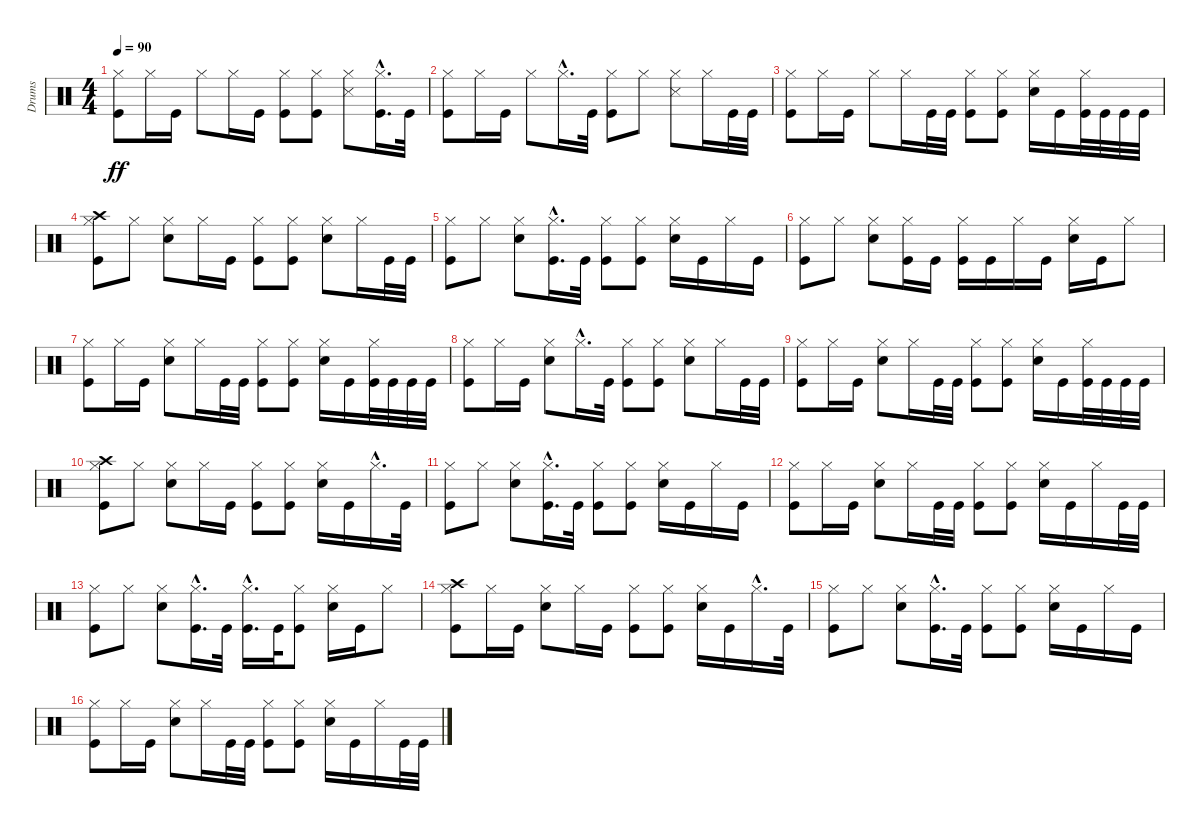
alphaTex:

\track ("Drums" "Drums") {instrument percussion}
\staff {score}
\articulation defaults
\ts (4 4)
\tempo 90
\clef neutral
\ks c
("Kick (hit)" "Hi-Hat (closed)").8{dy ff} "Hi-Hat (closed)".16 "Kick (hit)".16 "Hi-Hat (closed)".8 "Hi-Hat (closed)".16 "Kick (hit)".16 ("Kick (hit)" "Hi-Hat (closed)").8 ("Kick (hit)" "Hi-Hat (closed)").8 ("Snare (side stick) 3" "Hi-Hat (closed)").8 ("Kick (hit)"{hac} "Hi-Hat (closed)"{hac}).16{d} "Kick (hit)".32 |
("Kick (hit)" "Hi-Hat (closed)").8 "Hi-Hat (closed)".16 "Kick (hit)".16 "Hi-Hat (closed)".8 "Hi-Hat (closed)"{hac}.16{d} "Kick (hit)".32 ("Kick (hit)" "Hi-Hat (closed)").8 "Hi-Hat (closed)".8 ("Snare (side stick) 3" "Hi-Hat (closed)").8 "Hi-Hat (closed)".16 "Kick (hit)".32 "Kick (hit)".32 |
("Kick (hit)" "Hi-Hat (closed)").8 "Hi-Hat (closed)".16 "Kick (hit)".16 "Hi-Hat (closed)".8 "Hi-Hat (closed)".16 "Kick (hit)".32 "Kick (hit)".32 ("Kick (hit)" "Hi-Hat (closed)").8 ("Kick (hit)" "Hi-Hat (closed)").8 ("Electric Snare (hit)" "Hi-Hat (closed)").16 "Kick (hit)".16 ("Kick (hit)" "Hi-Hat (closed)").32 "Kick (hit)".32 "Kick (hit)".32 "Kick (hit)".32 |
("Kick (hit)" "Hi-Hat (closed)" "Crash high (hit)").8 "Hi-Hat (closed)".8 ("Electric Snare (hit)" "Hi-Hat (closed)").8 "Hi-Hat (closed)".16 "Kick (hit)".16 ("Kick (hit)" "Hi-Hat (closed)").8 ("Kick (hit)" "Hi-Hat (closed)").8 ("Electric Snare (hit)" "Hi-Hat (closed)").8 "Hi-Hat (closed)".16 "Kick (hit)".32 "Kick (hit)".32 |
("Kick (hit)" "Hi-Hat (closed)").8 "Hi-Hat (closed)".8 ("Electric Snare (hit)" "Hi-Hat (closed)").8 ("Kick (hit)"{hac} "Hi-Hat (closed)"{hac}).16{d} "Kick (hit)".32 ("Kick (hit)" "Hi-Hat (closed)").8 ("Kick (hit)" "Hi-Hat (closed)").8 ("Electric Snare (hit)" "Hi-Hat (closed)").16 "Kick (hit)".16 "Hi-Hat (closed)".16 "Kick (hit)".16 |
("Kick (hit)" "Hi-Hat (closed)").8 "Hi-Hat (closed)".8 ("Electric Snare (hit)" "Hi-Hat (closed)").8 ("Kick (hit)" "Hi-Hat (closed)").16 "Kick (hit)".16 ("Kick (hit)" "Hi-Hat (closed)").16 "Kick (hit)".16 "Hi-Hat (closed)".16 "Kick (hit)".16 ("Electric Snare (hit)" "Hi-Hat (closed)").16 "Kick (hit)".16 "Hi-Hat (closed)".8 |
("Kick (hit)" "Hi-Hat (closed)").8 "Hi-Hat (closed)".16 "Kick (hit)".16 ("Hi-Hat (closed)" "Electric Snare (hit)").8 "Hi-Hat (closed)".16 "Kick (hit)".32 "Kick (hit)".32 ("Kick (hit)" "Hi-Hat (closed)").8 ("Kick (hit)" "Hi-Hat (closed)").8 ("Electric Snare (hit)" "Hi-Hat (closed)").16 "Kick (hit)".16 ("Kick (hit)" "Hi-Hat (closed)").32 "Kick (hit)".32 "Kick (hit)".32 "Kick (hit)".32 |
("Kick (hit)" "Hi-Hat (closed)").8 "Hi-Hat (closed)".16 "Kick (hit)".16 ("Electric Snare (hit)" "Hi-Hat (closed)").8 "Hi-Hat (closed)"{hac}.16{d} "Kick (hit)".32 ("Kick (hit)" "Hi-Hat (closed)").8 ("Kick (hit)" "Hi-Hat (closed)").8 ("Electric Snare (hit)" "Hi-Hat (closed)").8 "Hi-Hat (closed)".16 "Kick (hit)".32 "Kick (hit)".32 |
("Kick (hit)" "Hi-Hat (closed)").8 "Hi-Hat (closed)".16 "Kick (hit)".16 ("Electric Snare (hit)" "Hi-Hat (closed)").8 "Hi-Hat (closed)".16 "Kick (hit)".32 "Kick (hit)".32 ("Kick (hit)" "Hi-Hat (closed)").8 ("Kick (hit)" "Hi-Hat (closed)").8 ("Electric Snare (hit)" "Hi-Hat (closed)").16 "Kick (hit)".16 ("Kick (hit)" "Hi-Hat (closed)").32 "Kick (hit)".32 "Kick (hit)".32 "Kick (hit)".32 |
("Kick (hit)" "Hi-Hat (closed)" "Crash high (hit)").8 "Hi-Hat (closed)".8 ("Electric Snare (hit)" "Hi-Hat (closed)").8 "Hi-Hat (closed)".16 "Kick (hit)".16 ("Kick (hit)" "Hi-Hat (closed)").8 ("Kick (hit)" "Hi-Hat (closed)").8 ("Electric Snare (hit)" "Hi-Hat (closed)").16 "Kick (hit)".16 "Hi-Hat (closed)"{hac}.16{d} "Kick (hit)".32 |
("Kick (hit)" "Hi-Hat (closed)").8 "Hi-Hat (closed)".8 ("Electric Snare (hit)" "Hi-Hat (closed)").8 ("Kick (hit)"{hac} "Hi-Hat (closed)"{hac}).16{d} "Kick (hit)".32 ("Kick (hit)" "Hi-Hat (closed)").8 ("Kick (hit)" "Hi-Hat (closed)").8 ("Electric Snare (hit)" "Hi-Hat (closed)").16 "Kick (hit)".16 "Hi-Hat (closed)".16 "Kick (hit)".16 |
("Kick (hit)" "Hi-Hat (closed)").8 "Hi-Hat (closed)".16 "Kick (hit)".16 ("Electric Snare (hit)" "Hi-Hat (closed)").8 "Hi-Hat (closed)".16 "Kick (hit)".32 "Kick (hit)".32 ("Kick (hit)" "Hi-Hat (closed)").8 ("Kick (hit)" "Hi-Hat (closed)").8 ("Electric Snare (hit)" "Hi-Hat (closed)").16 "Kick (hit)".16 "Hi-Hat (closed)".16 "Kick (hit)".32 "Kick (hit)".32 |
("Kick (hit)" "Hi-Hat (closed)").8 "Hi-Hat (closed)".8 ("Electric Snare (hit)" "Hi-Hat (closed)").8 ("Kick (hit)"{hac} "Hi-Hat (closed)"{hac}).16{d} "Kick (hit)".32 ("Kick (hit)"{hac} "Hi-Hat (closed)"{hac}).16{d} "Kick (hit)".32 ("Kick (hit)" "Hi-Hat (closed)").8 ("Electric Snare (hit)" "Hi-Hat (closed)").16 "Kick (hit)".16 "Hi-Hat (closed)".8 |
("Kick (hit)" "Hi-Hat (closed)" "Crash high (hit)").8 "Hi-Hat (closed)".16 "Kick (hit)".16 ("Electric Snare (hit)" "Hi-Hat (closed)").8 "Hi-Hat (closed)".16 "Kick (hit)".16 ("Kick (hit)" "Hi-Hat (closed)").8 ("Kick (hit)" "Hi-Hat (closed)").8 ("Electric Snare (hit)" "Hi-Hat (closed)").16 "Kick (hit)".16 "Hi-Hat (closed)"{hac}.16{d} "Kick (hit)".32 |
("Kick (hit)" "Hi-Hat (closed)").8 "Hi-Hat (closed)".8 ("Electric Snare (hit)" "Hi-Hat (closed)").8 ("Kick (hit)"{hac} "Hi-Hat (closed)"{hac}).16{d} "Kick (hit)".32 ("Kick (hit)" "Hi-Hat (closed)").8 ("Kick (hit)" "Hi-Hat (closed)").8 ("Electric Snare (hit)" "Hi-Hat (closed)").16 "Kick (hit)".16 "Hi-Hat (closed)".16 "Kick (hit)".16 |
("Kick (hit)" "Hi-Hat (closed)").8 "Hi-Hat (closed)".16 "Kick (hit)".16 ("Electric Snare (hit)" "Hi-Hat (closed)").8 "Hi-Hat (closed)".16 "Kick (hit)".32 "Kick (hit)".32 ("Kick (hit)" "Hi-Hat (closed)").8 ("Kick (hit)" "Hi-Hat (closed)").8 ("Electric Snare (hit)" "Hi-Hat (closed)").16 "Kick (hit)".16 "Hi-Hat (closed)".16 "Kick (hit)".32 "Kick (hit)".32
